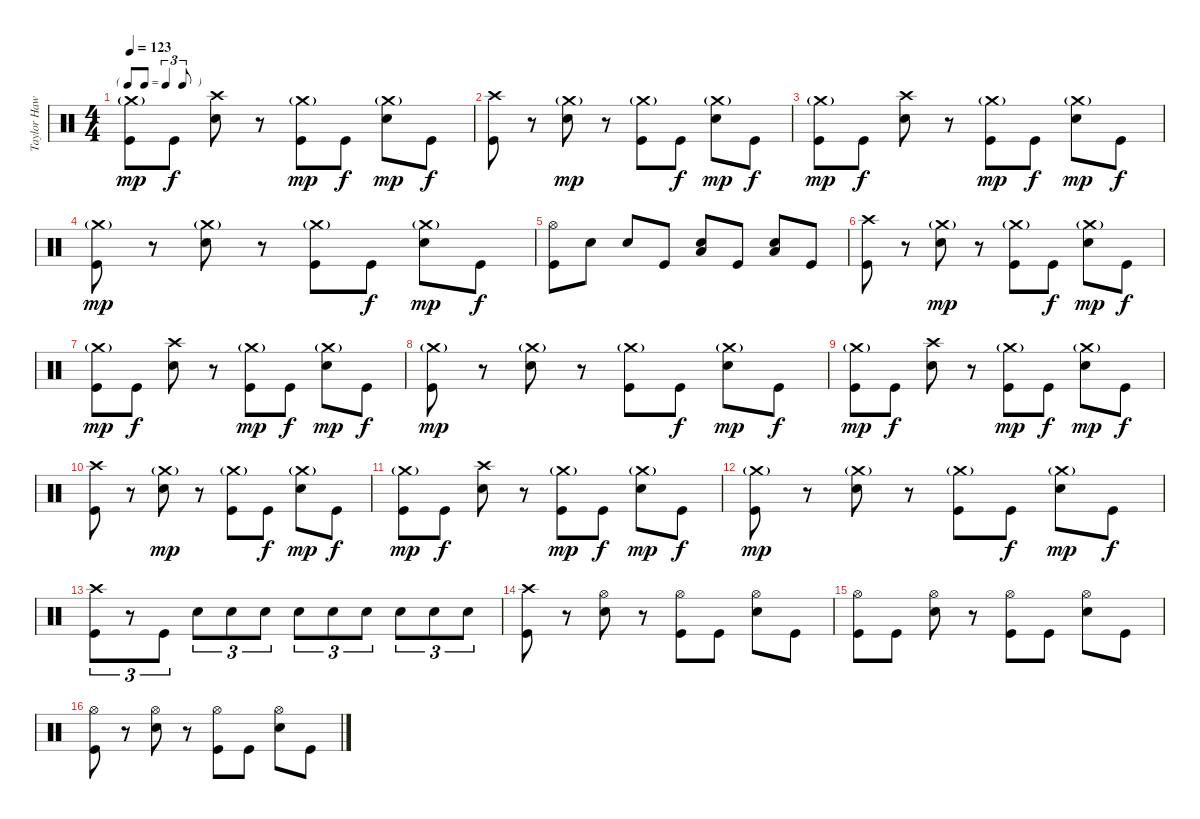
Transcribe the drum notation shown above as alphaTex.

\track ("Taylor Hawkins - Drums" "Taylor Haw") {instrument percussion}
\staff {score}
\articulation defaults
\ts (4 4)
\tf triplet8th
\tempo 123
\clef neutral
\ks c
("Crash medium (hit)"{g} "Kick (hit)").8{dy mp} "Kick (hit)".8{dy f} ("Crash high (hit)" "Electric Snare (hit)").8 r.8 ("Crash medium (hit)"{g} "Kick (hit)").8{dy mp} "Kick (hit)".8{dy f} ("Crash medium (hit)"{g} "Electric Snare (hit)").8{dy mp} "Kick (hit)".8{dy f} |
("Crash high (hit)" "Kick (hit)").8 r.8 ("Crash medium (hit)"{g} "Electric Snare (hit)").8{dy mp} r.8 ("Crash medium (hit)"{g} "Kick (hit)").8 "Kick (hit)".8{dy f} ("Crash medium (hit)"{g} "Electric Snare (hit)").8{dy mp} "Kick (hit)".8{dy f} |
("Crash medium (hit)"{g} "Kick (hit)").8{dy mp} "Kick (hit)".8{dy f} ("Crash high (hit)" "Electric Snare (hit)").8 r.8 ("Crash medium (hit)"{g} "Kick (hit)").8{dy mp} "Kick (hit)".8{dy f} ("Crash medium (hit)"{g} "Electric Snare (hit)").8{dy mp} "Kick (hit)".8{dy f} |
("Crash medium (hit)"{g} "Kick (hit)").8{dy mp} r.8 ("Crash medium (hit)"{g} "Electric Snare (hit)").8 r.8 ("Crash medium (hit)"{g} "Kick (hit)").8 "Kick (hit)".8{dy f} ("Crash medium (hit)"{g} "Electric Snare (hit)").8{dy mp} "Kick (hit)".8{dy f} |
("Hi-Hat (open)" "Kick (hit)").8 "Electric Snare (hit)".8 "Electric Snare (hit)".8 "Kick (hit)".8 ("Electric Snare (hit)" "Low Tom (hit)").8 "Kick (hit)".8 ("Electric Snare (hit)" "Low Floor Tom (hit)").8 "Kick (hit)".8 |
("Crash high (hit)" "Kick (hit)").8 r.8 ("Crash medium (hit)"{g} "Electric Snare (hit)").8{dy mp} r.8 ("Crash medium (hit)"{g} "Kick (hit)").8 "Kick (hit)".8{dy f} ("Crash medium (hit)"{g} "Electric Snare (hit)").8{dy mp} "Kick (hit)".8{dy f} |
("Crash medium (hit)"{g} "Kick (hit)").8{dy mp} "Kick (hit)".8{dy f} ("Crash high (hit)" "Electric Snare (hit)").8 r.8 ("Crash medium (hit)"{g} "Kick (hit)").8{dy mp} "Kick (hit)".8{dy f} ("Crash medium (hit)"{g} "Electric Snare (hit)").8{dy mp} "Kick (hit)".8{dy f} |
("Crash medium (hit)"{g} "Kick (hit)").8{dy mp} r.8 ("Crash medium (hit)"{g} "Electric Snare (hit)").8 r.8 ("Crash medium (hit)"{g} "Kick (hit)").8 "Kick (hit)".8{dy f} ("Crash medium (hit)"{g} "Electric Snare (hit)").8{dy mp} "Kick (hit)".8{dy f} |
("Crash medium (hit)"{g} "Kick (hit)").8{dy mp} "Kick (hit)".8{dy f} ("Crash high (hit)" "Electric Snare (hit)").8 r.8 ("Crash medium (hit)"{g} "Kick (hit)").8{dy mp} "Kick (hit)".8{dy f} ("Crash medium (hit)"{g} "Electric Snare (hit)").8{dy mp} "Kick (hit)".8{dy f} |
("Crash high (hit)" "Kick (hit)").8 r.8 ("Crash medium (hit)"{g} "Electric Snare (hit)").8{dy mp} r.8 ("Crash medium (hit)"{g} "Kick (hit)").8 "Kick (hit)".8{dy f} ("Crash medium (hit)"{g} "Electric Snare (hit)").8{dy mp} "Kick (hit)".8{dy f} |
("Crash medium (hit)"{g} "Kick (hit)").8{dy mp} "Kick (hit)".8{dy f} ("Crash high (hit)" "Electric Snare (hit)").8 r.8 ("Crash medium (hit)"{g} "Kick (hit)").8{dy mp} "Kick (hit)".8{dy f} ("Crash medium (hit)"{g} "Electric Snare (hit)").8{dy mp} "Kick (hit)".8{dy f} |
("Crash medium (hit)"{g} "Kick (hit)").8{dy mp} r.8 ("Crash medium (hit)"{g} "Electric Snare (hit)").8 r.8 ("Crash medium (hit)"{g} "Kick (hit)").8 "Kick (hit)".8{dy f} ("Crash medium (hit)"{g} "Electric Snare (hit)").8{dy mp} "Kick (hit)".8{dy f} |
("Crash high (hit)" "Kick (hit)").8{tu (3 2)} r.8{tu (3 2)} "Kick (hit)".8{tu (3 2)} "Electric Snare (hit)".8{tu (3 2)} "Electric Snare (hit)".8{tu (3 2)} "Electric Snare (hit)".8{tu (3 2)} "Electric Snare (hit)".8{tu (3 2)} "Electric Snare (hit)".8{tu (3 2)} "Electric Snare (hit)".8{tu (3 2)} "Electric Snare (hit)".8{tu (3 2)} "Electric Snare (hit)".8{tu (3 2)} "Electric Snare (hit)".8{tu (3 2)} |
("Crash high (hit)" "Kick (hit)").8 r.8 ("Hi-Hat (open)" "Electric Snare (hit)").8 r.8 ("Hi-Hat (open)" "Kick (hit)").8 "Kick (hit)".8 ("Hi-Hat (open)" "Electric Snare (hit)").8 "Kick (hit)".8 |
("Hi-Hat (open)" "Kick (hit)").8 "Kick (hit)".8 ("Hi-Hat (open)" "Electric Snare (hit)").8 r.8 ("Hi-Hat (open)" "Kick (hit)").8 "Kick (hit)".8 ("Hi-Hat (open)" "Electric Snare (hit)").8 "Kick (hit)".8 |
("Hi-Hat (open)" "Kick (hit)").8 r.8 ("Hi-Hat (open)" "Electric Snare (hit)").8 r.8 ("Hi-Hat (open)" "Kick (hit)").8 "Kick (hit)".8 ("Hi-Hat (open)" "Electric Snare (hit)").8 "Kick (hit)".8
